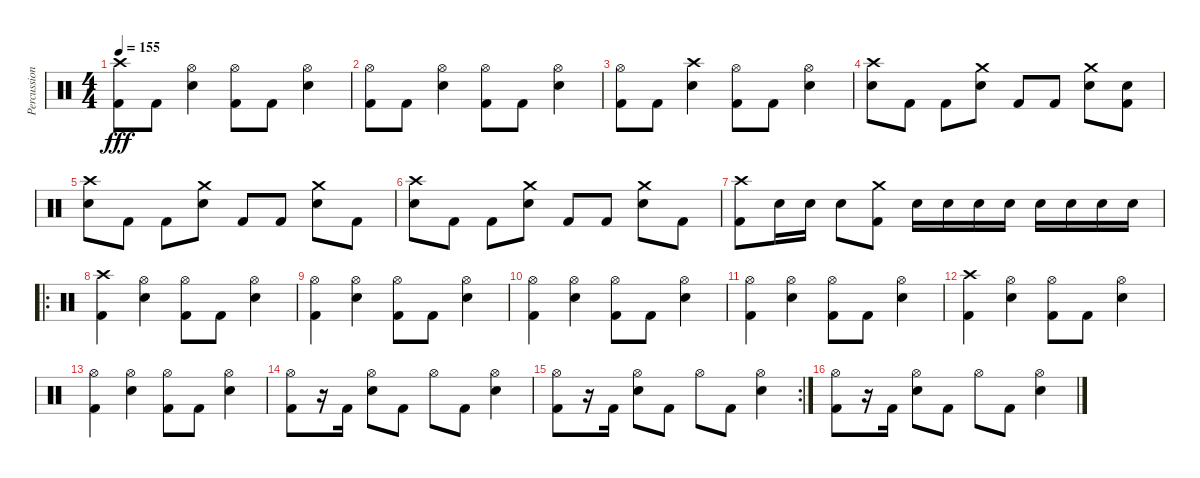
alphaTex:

\track ("Percussion" "Percussion") {instrument percussion}
\staff {score}
\articulation defaults
\ts (4 4)
\tempo 155
\clef neutral
\ks c
("Crash high (hit)" "Kick (hit) 2").8{dy fff} "Kick (hit) 2".8 ("Hi-Hat (open)" "Electric Snare (hit)").4 ("Hi-Hat (open)" "Kick (hit) 2").8 "Kick (hit) 2".8 ("Hi-Hat (open)" "Electric Snare (hit)").4 |
("Hi-Hat (open)" "Kick (hit) 2").8 "Kick (hit) 2".8 ("Hi-Hat (open)" "Electric Snare (hit)").4 ("Hi-Hat (open)" "Kick (hit) 2").8 "Kick (hit) 2".8 ("Hi-Hat (open)" "Electric Snare (hit)").4 |
("Hi-Hat (open)" "Kick (hit) 2").8 "Kick (hit) 2".8 ("Crash high (hit)" "Electric Snare (hit)").4 ("Hi-Hat (open)" "Kick (hit) 2").8 "Kick (hit) 2".8 ("Hi-Hat (open)" "Electric Snare (hit)").4 |
("Crash high (hit)" "Electric Snare (hit)").8 "Kick (hit) 2".8 "Kick (hit) 2".8 ("Crash medium (hit)" "Electric Snare (hit)").8 "Kick (hit) 2".8 "Kick (hit) 2".8 ("Crash medium (hit)" "Electric Snare (hit)").8 ("Electric Snare (hit)" "Kick (hit) 2").8 |
("Crash high (hit)" "Electric Snare (hit)").8 "Kick (hit) 2".8 "Kick (hit) 2".8 ("Crash medium (hit)" "Electric Snare (hit)").8 "Kick (hit) 2".8 "Kick (hit) 2".8 ("Crash medium (hit)" "Electric Snare (hit)").8 "Kick (hit) 2".8 |
("Crash high (hit)" "Electric Snare (hit)").8 "Kick (hit) 2".8 "Kick (hit) 2".8 ("Crash medium (hit)" "Electric Snare (hit)").8 "Kick (hit) 2".8 "Kick (hit) 2".8 ("Crash medium (hit)" "Electric Snare (hit)").8 "Kick (hit) 2".8 |
("Crash high (hit)" "Kick (hit) 2").8 "Electric Snare (hit)".16 "Electric Snare (hit)".16 "Electric Snare (hit)".8 ("Crash medium (hit)" "Kick (hit) 2").8 "Electric Snare (hit)".16 "Electric Snare (hit)".16 "Electric Snare (hit)".16 "Electric Snare (hit)".16 "Electric Snare (hit)".16 "Electric Snare (hit)".16 "Electric Snare (hit)".16 "Electric Snare (hit)".16 |
\ro
("Crash high (hit)" "Kick (hit) 2").4 ("Hi-Hat (open)" "Electric Snare (hit)").4 ("Hi-Hat (open)" "Kick (hit) 2").8 "Kick (hit) 2".8 ("Hi-Hat (open)" "Electric Snare (hit)").4 |
("Hi-Hat (open)" "Kick (hit) 2").4 ("Hi-Hat (open)" "Electric Snare (hit)").4 ("Hi-Hat (open)" "Kick (hit) 2").8 "Kick (hit) 2".8 ("Hi-Hat (open)" "Electric Snare (hit)").4 |
("Hi-Hat (open)" "Kick (hit) 2").4 ("Hi-Hat (open)" "Electric Snare (hit)").4 ("Hi-Hat (open)" "Kick (hit) 2").8 "Kick (hit) 2".8 ("Hi-Hat (open)" "Electric Snare (hit)").4 |
("Hi-Hat (open)" "Kick (hit) 2").4 ("Hi-Hat (open)" "Electric Snare (hit)").4 ("Hi-Hat (open)" "Kick (hit) 2").8 "Kick (hit) 2".8 ("Hi-Hat (open)" "Electric Snare (hit)").4 |
("Crash high (hit)" "Kick (hit) 2").4 ("Hi-Hat (open)" "Electric Snare (hit)").4 ("Hi-Hat (open)" "Kick (hit) 2").8 "Kick (hit) 2".8 ("Hi-Hat (open)" "Electric Snare (hit)").4 |
("Hi-Hat (open)" "Kick (hit) 2").4 ("Hi-Hat (open)" "Electric Snare (hit)").4 ("Hi-Hat (open)" "Kick (hit) 2").8 "Kick (hit) 2".8 ("Hi-Hat (open)" "Electric Snare (hit)").4 |
("Hi-Hat (open)" "Kick (hit) 2").8 r.16 "Kick (hit) 2".16 ("Hi-Hat (open)" "Electric Snare (hit)").8 "Kick (hit) 2".8 "Hi-Hat (open)".8 "Kick (hit) 2".8 ("Hi-Hat (open)" "Electric Snare (hit)").4 |
\rc 2
("Hi-Hat (open)" "Kick (hit) 2").8 r.16 "Kick (hit) 2".16 ("Hi-Hat (open)" "Electric Snare (hit)").8 "Kick (hit) 2".8 "Hi-Hat (open)".8 "Kick (hit) 2".8 ("Hi-Hat (open)" "Electric Snare (hit)").4 |
("Hi-Hat (open)" "Kick (hit) 2").8 r.16 "Kick (hit) 2".16 ("Hi-Hat (open)" "Electric Snare (hit)").8 "Kick (hit) 2".8 "Hi-Hat (open)".8 "Kick (hit) 2".8 ("Hi-Hat (open)" "Electric Snare (hit)").4
